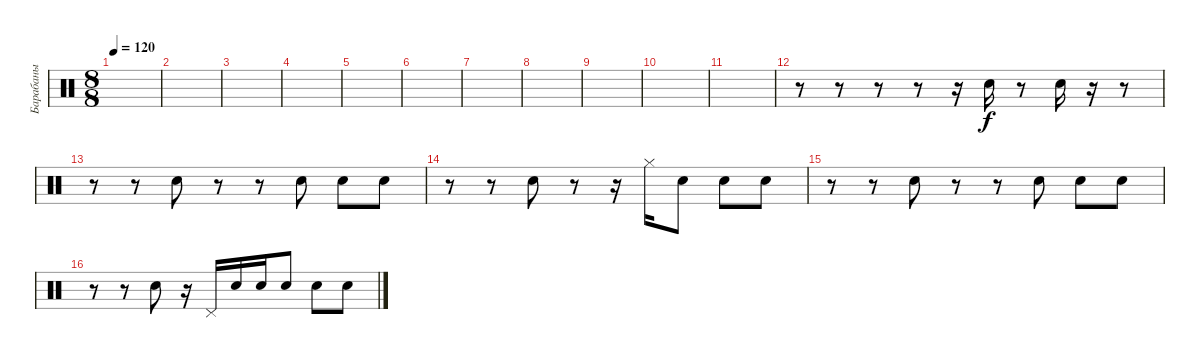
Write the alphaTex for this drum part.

\track ("Барабаны" "Барабаны") {instrument percussion}
\staff {score}
\articulation defaults
\ts (8 8)
\tempo 120
\clef neutral
\ks c
|
|
|
|
|
|
|
|
|
|
|
r.8 r.8 r.8 r.8 r.16 "Electric Snare (hit)".16 r.8 "Electric Snare (hit)".16 r.16 r.8 |
r.8 r.8 "Electric Snare (hit)".8 r.8 r.8 "Electric Snare (hit)".8 "Hand Clap (hit)".8 "Electric Snare (hit)".8 |
r.8 r.8 "Electric Snare (hit)".8 r.8 r.16 "Hi-Hat (closed)".16 "Electric Snare (hit)".8 "Hand Clap (hit)".8 "Electric Snare (hit)".8 |
r.8 r.8 "Electric Snare (hit)".8 r.8 r.8 "Electric Snare (hit)".8 "Hand Clap (hit)".8 "Electric Snare (hit)".8 |
r.8 r.8 "Electric Snare (hit)".8 r.16 "Pedal Hi-Hat (hit)".16 "Electric Snare (hit)".16 "Electric Snare (hit)".16 "Electric Snare (hit)".8 "Hand Clap (hit)".8 "Electric Snare (hit)".8
